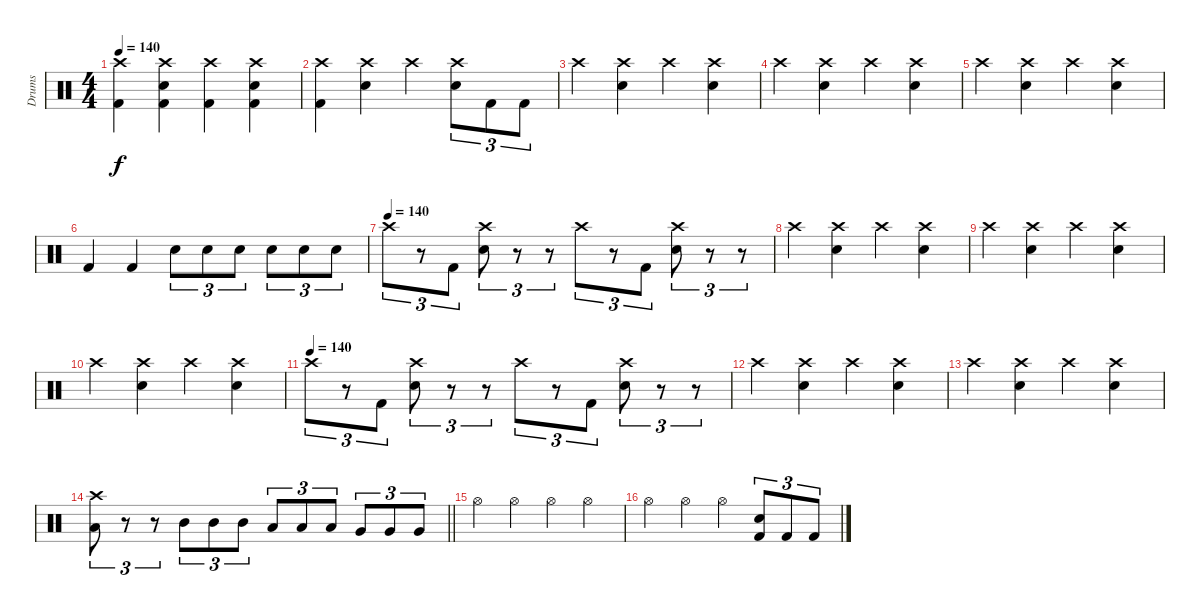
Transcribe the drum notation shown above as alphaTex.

\track ("Drums" "Drums") {instrument percussion}
\staff {score}
\articulation defaults
\ts (4 4)
\tempo 140
\clef neutral
\ks c
("Crash high (hit)" "Kick (hit) 2").4{dy f} ("Electric Snare (hit)" "Crash high (hit)" "Kick (hit) 2").4 ("Crash high (hit)" "Kick (hit) 2").4 ("Electric Snare (hit)" "Crash high (hit)" "Kick (hit) 2").4 |
("Crash high (hit)" "Kick (hit) 2").4 ("Crash high (hit)" "Electric Snare (hit)").4 "Crash high (hit)".4 ("Crash high (hit)" "Electric Snare (hit)").8{tu (3 2)} "Kick (hit) 2".8{tu (3 2)} "Kick (hit) 2".8{tu (3 2)} |
"Crash high (hit)".4 ("Crash high (hit)" "Electric Snare (hit)").4 "Crash high (hit)".4 ("Crash high (hit)" "Electric Snare (hit)").4 |
"Crash high (hit)".4 ("Electric Snare (hit)" "Crash high (hit)").4 "Crash high (hit)".4 ("Electric Snare (hit)" "Crash high (hit)").4 |
"Crash high (hit)".4 ("Electric Snare (hit)" "Crash high (hit)").4 "Crash high (hit)".4 ("Electric Snare (hit)" "Crash high (hit)").4 |
"Kick (hit) 2".4 "Kick (hit) 2".4 "Electric Snare (hit)".8{tu (3 2)} "Electric Snare (hit)".8{tu (3 2)} "Electric Snare (hit)".8{tu (3 2)} "Electric Snare (hit)".8{tu (3 2)} "Electric Snare (hit)".8{tu (3 2)} "Electric Snare (hit)".8{tu (3 2)} |
\tempo (140)
"Crash high (hit)".8{tu (3 2)} r.8{tu (3 2)} "Kick (hit) 2".8{tu (3 2)} ("Crash high (hit)" "Electric Snare (hit)").8{tu (3 2)} r.8{tu (3 2)} r.8{tu (3 2)} "Crash high (hit)".8{tu (3 2)} r.8{tu (3 2)} "Kick (hit) 2".8{tu (3 2)} ("Crash high (hit)" "Electric Snare (hit)").8{tu (3 2)} r.8{tu (3 2)} r.8{tu (3 2)} |
"Crash high (hit)".4 ("Electric Snare (hit)" "Crash high (hit)").4 "Crash high (hit)".4 ("Electric Snare (hit)" "Crash high (hit)").4 |
"Crash high (hit)".4 ("Electric Snare (hit)" "Crash high (hit)").4 "Crash high (hit)".4 ("Electric Snare (hit)" "Crash high (hit)").4 |
"Crash high (hit)".4 ("Electric Snare (hit)" "Crash high (hit)").4 "Crash high (hit)".4 ("Electric Snare (hit)" "Crash high (hit)").4 |
\tempo (140)
"Crash high (hit)".8{tu (3 2)} r.8{tu (3 2)} "Kick (hit) 2".8{tu (3 2)} ("Crash high (hit)" "Electric Snare (hit)").8{tu (3 2)} r.8{tu (3 2)} r.8{tu (3 2)} "Crash high (hit)".8{tu (3 2)} r.8{tu (3 2)} "Kick (hit) 2".8{tu (3 2)} ("Crash high (hit)" "Electric Snare (hit)").8{tu (3 2)} r.8{tu (3 2)} r.8{tu (3 2)} |
"Crash high (hit)".4 ("Electric Snare (hit)" "Crash high (hit)").4 "Crash high (hit)".4 ("Electric Snare (hit)" "Crash high (hit)").4 |
"Crash high (hit)".4 ("Electric Snare (hit)" "Crash high (hit)").4 "Crash high (hit)".4 ("Electric Snare (hit)" "Crash high (hit)").4 |
\barLineRight lightlight
("Crash high (hit)" "Low Tom (hit)").8{tu (3 2)} r.8{tu (3 2)} r.8{tu (3 2)} "Mid Tom (hit)".8{tu (3 2)} "Mid Tom (hit)".8{tu (3 2)} "Mid Tom (hit)".8{tu (3 2)} "Low Tom (hit)".8{tu (3 2)} "Low Tom (hit)".8{tu (3 2)} "Low Tom (hit)".8{tu (3 2)} "Very Low Tom (hit)".8{tu (3 2)} "Very Low Tom (hit)".8{tu (3 2)} "Very Low Tom (hit)".8{tu (3 2)} |
"Hi-Hat (open)".4 "Hi-Hat (open)".4 "Hi-Hat (open)".4 "Hi-Hat (open)".4 |
"Hi-Hat (open)".4 "Hi-Hat (open)".4 "Hi-Hat (open)".4 ("Electric Snare (hit)" "Kick (hit) 2").8{tu (3 2)} "Kick (hit) 2".8{tu (3 2)} "Kick (hit) 2".8{tu (3 2)}
